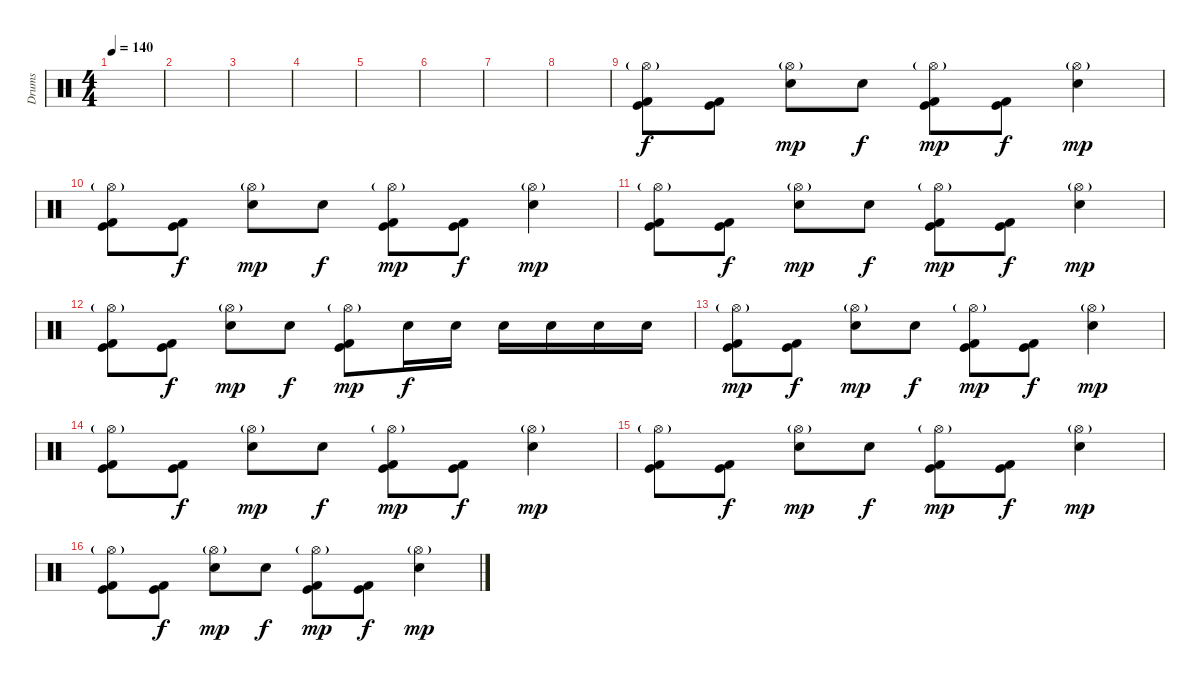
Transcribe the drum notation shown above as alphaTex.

\track ("Drums" "Drums") {instrument percussion}
\staff {score}
\articulation defaults
\ts (4 4)
\tempo 140
\clef neutral
\ks c
|
|
|
|
|
|
|
|
("Hi-Hat (open)"{g} "Kick (hit) 2" "Kick (hit)").8 ("Kick (hit) 2" "Kick (hit)").8{dy f} ("Hi-Hat (open)"{g} "Snare (hit) 2").8{dy mp} "Snare (hit) 2".8{dy f} ("Hi-Hat (open)"{g} "Kick (hit) 2" "Kick (hit)").8{dy mp} ("Kick (hit) 2" "Kick (hit)").8{dy f} ("Hi-Hat (open)"{g} "Snare (hit) 2").4{dy mp} |
("Hi-Hat (open)"{g} "Kick (hit) 2" "Kick (hit)").8 ("Kick (hit) 2" "Kick (hit)").8{dy f} ("Hi-Hat (open)"{g} "Snare (hit) 2").8{dy mp} "Snare (hit) 2".8{dy f} ("Hi-Hat (open)"{g} "Kick (hit) 2" "Kick (hit)").8{dy mp} ("Kick (hit) 2" "Kick (hit)").8{dy f} ("Hi-Hat (open)"{g} "Snare (hit) 2").4{dy mp} |
("Hi-Hat (open)"{g} "Kick (hit) 2" "Kick (hit)").8 ("Kick (hit) 2" "Kick (hit)").8{dy f} ("Hi-Hat (open)"{g} "Snare (hit) 2").8{dy mp} "Snare (hit) 2".8{dy f} ("Hi-Hat (open)"{g} "Kick (hit) 2" "Kick (hit)").8{dy mp} ("Kick (hit) 2" "Kick (hit)").8{dy f} ("Hi-Hat (open)"{g} "Snare (hit) 2").4{dy mp} |
("Hi-Hat (open)"{g} "Kick (hit) 2" "Kick (hit)").8 ("Kick (hit) 2" "Kick (hit)").8{dy f} ("Hi-Hat (open)"{g} "Snare (hit) 2").8{dy mp} "Snare (hit) 2".8{dy f} ("Hi-Hat (open)"{g} "Kick (hit) 2" "Kick (hit)").8{dy mp} "Snare (hit) 2".16{dy f} "Snare (hit) 2".16 "Snare (hit) 2".16 "Snare (hit) 2".16 "Snare (hit) 2".16 "Snare (hit) 2".16 |
("Hi-Hat (open)"{g} "Kick (hit) 2" "Kick (hit)").8{dy mp} ("Kick (hit) 2" "Kick (hit)").8{dy f} ("Hi-Hat (open)"{g} "Snare (hit) 2").8{dy mp} "Snare (hit) 2".8{dy f} ("Hi-Hat (open)"{g} "Kick (hit) 2" "Kick (hit)").8{dy mp} ("Kick (hit) 2" "Kick (hit)").8{dy f} ("Hi-Hat (open)"{g} "Snare (hit) 2").4{dy mp} |
("Hi-Hat (open)"{g} "Kick (hit) 2" "Kick (hit)").8 ("Kick (hit) 2" "Kick (hit)").8{dy f} ("Hi-Hat (open)"{g} "Snare (hit) 2").8{dy mp} "Snare (hit) 2".8{dy f} ("Hi-Hat (open)"{g} "Kick (hit) 2" "Kick (hit)").8{dy mp} ("Kick (hit) 2" "Kick (hit)").8{dy f} ("Hi-Hat (open)"{g} "Snare (hit) 2").4{dy mp} |
("Hi-Hat (open)"{g} "Kick (hit) 2" "Kick (hit)").8 ("Kick (hit) 2" "Kick (hit)").8{dy f} ("Hi-Hat (open)"{g} "Snare (hit) 2").8{dy mp} "Snare (hit) 2".8{dy f} ("Hi-Hat (open)"{g} "Kick (hit) 2" "Kick (hit)").8{dy mp} ("Kick (hit) 2" "Kick (hit)").8{dy f} ("Hi-Hat (open)"{g} "Snare (hit) 2").4{dy mp} |
("Hi-Hat (open)"{g} "Kick (hit) 2" "Kick (hit)").8 ("Kick (hit) 2" "Kick (hit)").8{dy f} ("Hi-Hat (open)"{g} "Snare (hit) 2").8{dy mp} "Snare (hit) 2".8{dy f} ("Hi-Hat (open)"{g} "Kick (hit) 2" "Kick (hit)").8{dy mp} ("Kick (hit) 2" "Kick (hit)").8{dy f} ("Hi-Hat (open)"{g} "Snare (hit) 2").4{dy mp}
